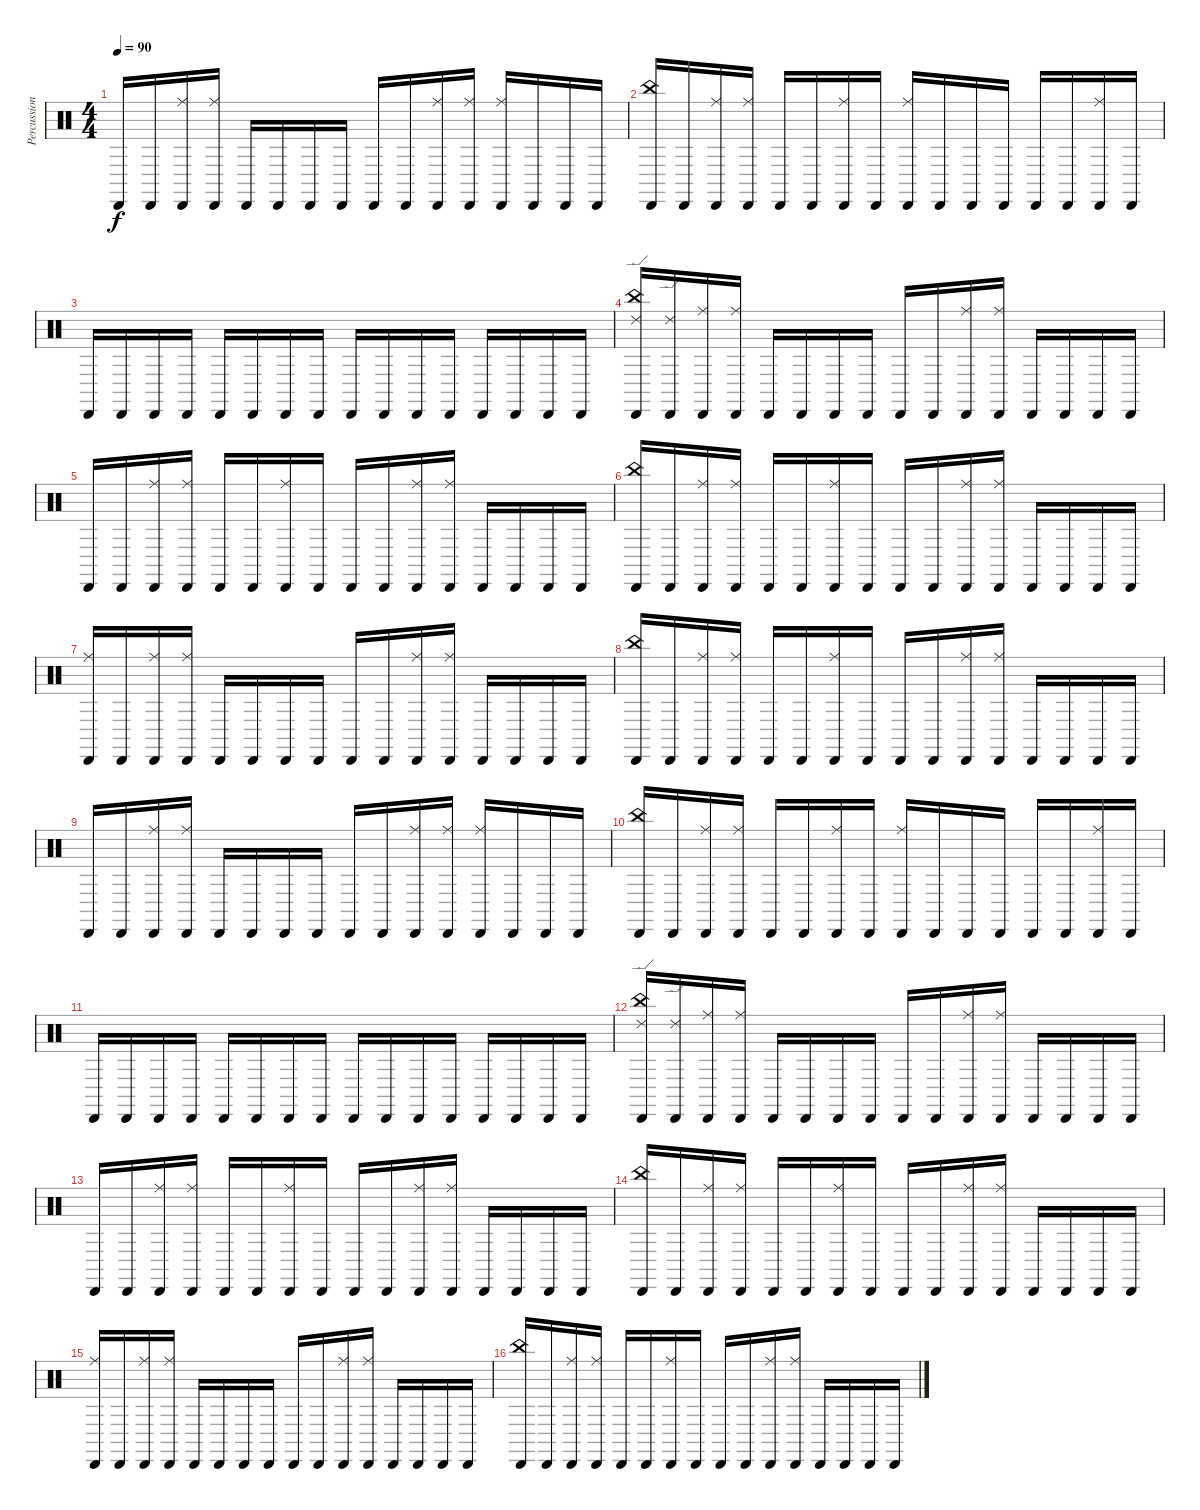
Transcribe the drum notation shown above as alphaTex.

\track ("Percussions by Marc Lavoo" "Percussion") {instrument percussion}
\staff {score}
\articulation defaults
\ts (4 4)
\tempo 90
\clef neutral
\ks c "Cabasa (hit)".16{dy f} "Cabasa (hit)".16
("Cabasa (hit)" "Ride (middle)").16 ("Cabasa (hit)" "Ride (middle)").16 "Cabasa (hit)".16 "Cabasa (hit)".16 "Cabasa (hit)".16 "Cabasa (hit)".16 "Cabasa (hit)".16 "Cabasa (hit)".16 ("Cabasa (hit)" "Ride (middle)").16 ("Cabasa (hit)" "Ride (middle)").16 ("Cabasa (hit)" "Ride (middle)").16 "Cabasa (hit)".16 "Cabasa (hit)".16 "Cabasa (hit)".16 |
("Cabasa (hit)" "China (hit)").16 "Cabasa (hit)".16 ("Cabasa (hit)" "Ride (middle)").16 ("Cabasa (hit)" "Ride (middle)").16 "Cabasa (hit)".16 "Cabasa (hit)".16 ("Cabasa (hit)" "Ride (middle)").16 "Cabasa (hit)".16 ("Cabasa (hit)" "Ride (middle)").16 "Cabasa (hit)".16 "Cabasa (hit)".16 "Cabasa (hit)".16 "Cabasa (hit)".16 "Cabasa (hit)".16 ("Cabasa (hit)" "Ride (middle)").16 "Cabasa (hit)".16 |
"Cabasa (hit)".16 "Cabasa (hit)".16 "Cabasa (hit)".16 "Cabasa (hit)".16 "Cabasa (hit)".16 "Cabasa (hit)".16 "Cabasa (hit)".16 "Cabasa (hit)".16 "Cabasa (hit)".16 "Cabasa (hit)".16 "Cabasa (hit)".16 "Cabasa (hit)".16 "Cabasa (hit)".16 "Cabasa (hit)".16 "Cabasa (hit)".16 "Cabasa (hit)".16 |
("Cabasa (hit)" "China (hit)" "Ride (edge) 2").16 ("Cabasa (hit)" "Ride (edge) 2").16 ("Cabasa (hit)" "Ride (middle)").16 ("Cabasa (hit)" "Ride (middle)").16 "Cabasa (hit)".16 "Cabasa (hit)".16 "Cabasa (hit)".16 "Cabasa (hit)".16 "Cabasa (hit)".16 "Cabasa (hit)".16 ("Cabasa (hit)" "Ride (middle)").16 ("Cabasa (hit)" "Ride (middle)").16 "Cabasa (hit)".16 "Cabasa (hit)".16 "Cabasa (hit)".16 "Cabasa (hit)".16 |
"Cabasa (hit)".16 "Cabasa (hit)".16 ("Cabasa (hit)" "Ride (middle)").16 ("Cabasa (hit)" "Ride (middle)").16 "Cabasa (hit)".16 "Cabasa (hit)".16 ("Cabasa (hit)" "Ride (middle)").16 "Cabasa (hit)".16 "Cabasa (hit)".16 "Cabasa (hit)".16 ("Cabasa (hit)" "Ride (middle)").16 ("Cabasa (hit)" "Ride (middle)").16 "Cabasa (hit)".16 "Cabasa (hit)".16 "Cabasa (hit)".16 "Cabasa (hit)".16 |
("Cabasa (hit)" "China (hit)").16 "Cabasa (hit)".16 ("Cabasa (hit)" "Ride (middle)").16 ("Cabasa (hit)" "Ride (middle)").16 "Cabasa (hit)".16 "Cabasa (hit)".16 ("Cabasa (hit)" "Ride (middle)").16 "Cabasa (hit)".16 "Cabasa (hit)".16 "Cabasa (hit)".16 ("Cabasa (hit)" "Ride (middle)").16 ("Cabasa (hit)" "Ride (middle)").16 "Cabasa (hit)".16 "Cabasa (hit)".16 "Cabasa (hit)".16 "Cabasa (hit)".16 |
("Cabasa (hit)" "Ride (middle)").16 "Cabasa (hit)".16 ("Cabasa (hit)" "Ride (middle)").16 ("Cabasa (hit)" "Ride (middle)").16 "Cabasa (hit)".16 "Cabasa (hit)".16 "Cabasa (hit)".16 "Cabasa (hit)".16 "Cabasa (hit)".16 "Cabasa (hit)".16 ("Cabasa (hit)" "Ride (middle)").16 ("Cabasa (hit)" "Ride (middle)").16 "Cabasa (hit)".16 "Cabasa (hit)".16 "Cabasa (hit)".16 "Cabasa (hit)".16 |
("Cabasa (hit)" "China (hit)").16 "Cabasa (hit)".16 ("Cabasa (hit)" "Ride (middle)").16 ("Cabasa (hit)" "Ride (middle)").16 "Cabasa (hit)".16 "Cabasa (hit)".16 ("Cabasa (hit)" "Ride (middle)").16 "Cabasa (hit)".16 "Cabasa (hit)".16 "Cabasa (hit)".16 ("Cabasa (hit)" "Ride (middle)").16 ("Cabasa (hit)" "Ride (middle)").16 "Cabasa (hit)".16 "Cabasa (hit)".16 "Cabasa (hit)".16 "Cabasa (hit)".16 |
"Cabasa (hit)".16 "Cabasa (hit)".16 ("Cabasa (hit)" "Ride (middle)").16 ("Cabasa (hit)" "Ride (middle)").16 "Cabasa (hit)".16 "Cabasa (hit)".16 "Cabasa (hit)".16 "Cabasa (hit)".16 "Cabasa (hit)".16 "Cabasa (hit)".16 ("Cabasa (hit)" "Ride (middle)").16 ("Cabasa (hit)" "Ride (middle)").16 ("Cabasa (hit)" "Ride (middle)").16 "Cabasa (hit)".16 "Cabasa (hit)".16 "Cabasa (hit)".16 |
("Cabasa (hit)" "China (hit)").16 "Cabasa (hit)".16 ("Cabasa (hit)" "Ride (middle)").16 ("Cabasa (hit)" "Ride (middle)").16 "Cabasa (hit)".16 "Cabasa (hit)".16 ("Cabasa (hit)" "Ride (middle)").16 "Cabasa (hit)".16 ("Cabasa (hit)" "Ride (middle)").16 "Cabasa (hit)".16 "Cabasa (hit)".16 "Cabasa (hit)".16 "Cabasa (hit)".16 "Cabasa (hit)".16 ("Cabasa (hit)" "Ride (middle)").16 "Cabasa (hit)".16 |
"Cabasa (hit)".16 "Cabasa (hit)".16 "Cabasa (hit)".16 "Cabasa (hit)".16 "Cabasa (hit)".16 "Cabasa (hit)".16 "Cabasa (hit)".16 "Cabasa (hit)".16 "Cabasa (hit)".16 "Cabasa (hit)".16 "Cabasa (hit)".16 "Cabasa (hit)".16 "Cabasa (hit)".16 "Cabasa (hit)".16 "Cabasa (hit)".16 "Cabasa (hit)".16 |
("Cabasa (hit)" "China (hit)" "Ride (edge) 2").16 ("Cabasa (hit)" "Ride (edge) 2").16 ("Cabasa (hit)" "Ride (middle)").16 ("Cabasa (hit)" "Ride (middle)").16 "Cabasa (hit)".16 "Cabasa (hit)".16 "Cabasa (hit)".16 "Cabasa (hit)".16 "Cabasa (hit)".16 "Cabasa (hit)".16 ("Cabasa (hit)" "Ride (middle)").16 ("Cabasa (hit)" "Ride (middle)").16 "Cabasa (hit)".16 "Cabasa (hit)".16 "Cabasa (hit)".16 "Cabasa (hit)".16 |
"Cabasa (hit)".16 "Cabasa (hit)".16 ("Cabasa (hit)" "Ride (middle)").16 ("Cabasa (hit)" "Ride (middle)").16 "Cabasa (hit)".16 "Cabasa (hit)".16 ("Cabasa (hit)" "Ride (middle)").16 "Cabasa (hit)".16 "Cabasa (hit)".16 "Cabasa (hit)".16 ("Cabasa (hit)" "Ride (middle)").16 ("Cabasa (hit)" "Ride (middle)").16 "Cabasa (hit)".16 "Cabasa (hit)".16 "Cabasa (hit)".16 "Cabasa (hit)".16 |
("Cabasa (hit)" "China (hit)").16 "Cabasa (hit)".16 ("Cabasa (hit)" "Ride (middle)").16 ("Cabasa (hit)" "Ride (middle)").16 "Cabasa (hit)".16 "Cabasa (hit)".16 ("Cabasa (hit)" "Ride (middle)").16 "Cabasa (hit)".16 "Cabasa (hit)".16 "Cabasa (hit)".16 ("Cabasa (hit)" "Ride (middle)").16 ("Cabasa (hit)" "Ride (middle)").16 "Cabasa (hit)".16 "Cabasa (hit)".16 "Cabasa (hit)".16 "Cabasa (hit)".16 |
("Cabasa (hit)" "Ride (middle)").16 "Cabasa (hit)".16 ("Cabasa (hit)" "Ride (middle)").16 ("Cabasa (hit)" "Ride (middle)").16 "Cabasa (hit)".16 "Cabasa (hit)".16 "Cabasa (hit)".16 "Cabasa (hit)".16 "Cabasa (hit)".16 "Cabasa (hit)".16 ("Cabasa (hit)" "Ride (middle)").16 ("Cabasa (hit)" "Ride (middle)").16 "Cabasa (hit)".16 "Cabasa (hit)".16 "Cabasa (hit)".16 "Cabasa (hit)".16 |
("Cabasa (hit)" "China (hit)").16 "Cabasa (hit)".16 ("Cabasa (hit)" "Ride (middle)").16 ("Cabasa (hit)" "Ride (middle)").16 "Cabasa (hit)".16 "Cabasa (hit)".16 ("Cabasa (hit)" "Ride (middle)").16 "Cabasa (hit)".16 "Cabasa (hit)".16 "Cabasa (hit)".16 ("Cabasa (hit)" "Ride (middle)").16 ("Cabasa (hit)" "Ride (middle)").16 "Cabasa (hit)".16 "Cabasa (hit)".16 "Cabasa (hit)".16 "Cabasa (hit)".16
